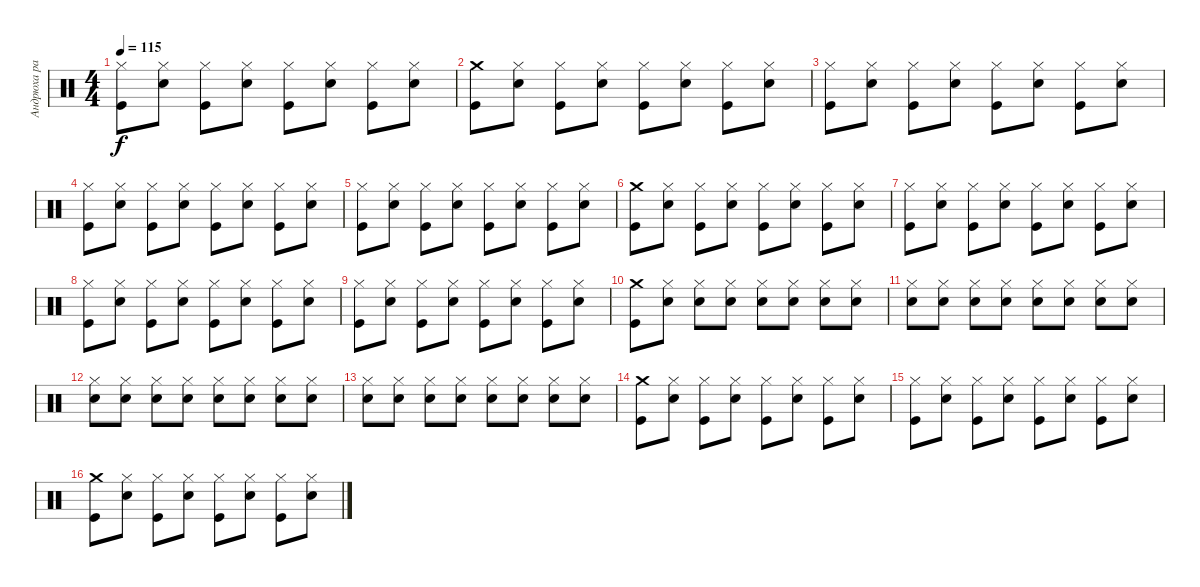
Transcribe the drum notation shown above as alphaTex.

\track ("Андрюха радостный" "Андрюха ра") {instrument percussion}
\staff {score}
\articulation defaults
\ts (4 4)
\tempo 115
\clef neutral
\ks c
("Hi-Hat (closed)" "Kick (hit)").8{dy f} ("Hi-Hat (closed)" "Electric Snare (hit)").8 ("Hi-Hat (closed)" "Kick (hit)").8 ("Hi-Hat (closed)" "Electric Snare (hit)").8 ("Hi-Hat (closed)" "Kick (hit)").8 ("Hi-Hat (closed)" "Electric Snare (hit)").8 ("Hi-Hat (closed)" "Kick (hit)").8 ("Hi-Hat (closed)" "Electric Snare (hit)").8 |
("Crash medium (hit)" "Kick (hit)").8 ("Hi-Hat (closed)" "Electric Snare (hit)").8 ("Hi-Hat (closed)" "Kick (hit)").8 ("Hi-Hat (closed)" "Electric Snare (hit)").8 ("Hi-Hat (closed)" "Kick (hit)").8 ("Hi-Hat (closed)" "Electric Snare (hit)").8 ("Hi-Hat (closed)" "Kick (hit)").8 ("Hi-Hat (closed)" "Electric Snare (hit)").8 |
("Hi-Hat (closed)" "Kick (hit)").8 ("Hi-Hat (closed)" "Electric Snare (hit)").8 ("Hi-Hat (closed)" "Kick (hit)").8 ("Hi-Hat (closed)" "Electric Snare (hit)").8 ("Hi-Hat (closed)" "Kick (hit)").8 ("Hi-Hat (closed)" "Electric Snare (hit)").8 ("Hi-Hat (closed)" "Kick (hit)").8 ("Hi-Hat (closed)" "Electric Snare (hit)").8 |
("Hi-Hat (closed)" "Kick (hit)").8 ("Hi-Hat (closed)" "Electric Snare (hit)").8 ("Hi-Hat (closed)" "Kick (hit)").8 ("Hi-Hat (closed)" "Electric Snare (hit)").8 ("Hi-Hat (closed)" "Kick (hit)").8 ("Hi-Hat (closed)" "Electric Snare (hit)").8 ("Hi-Hat (closed)" "Kick (hit)").8 ("Hi-Hat (closed)" "Electric Snare (hit)").8 |
("Hi-Hat (closed)" "Kick (hit)").8 ("Hi-Hat (closed)" "Electric Snare (hit)").8 ("Hi-Hat (closed)" "Kick (hit)").8 ("Hi-Hat (closed)" "Electric Snare (hit)").8 ("Hi-Hat (closed)" "Kick (hit)").8 ("Hi-Hat (closed)" "Electric Snare (hit)").8 ("Hi-Hat (closed)" "Kick (hit)").8 ("Hi-Hat (closed)" "Electric Snare (hit)").8 |
("Crash medium (hit)" "Kick (hit)").8 ("Hi-Hat (closed)" "Electric Snare (hit)").8 ("Hi-Hat (closed)" "Kick (hit)").8 ("Hi-Hat (closed)" "Electric Snare (hit)").8 ("Hi-Hat (closed)" "Kick (hit)").8 ("Hi-Hat (closed)" "Electric Snare (hit)").8 ("Hi-Hat (closed)" "Kick (hit)").8 ("Hi-Hat (closed)" "Electric Snare (hit)").8 |
("Hi-Hat (closed)" "Kick (hit)").8 ("Hi-Hat (closed)" "Electric Snare (hit)").8 ("Hi-Hat (closed)" "Kick (hit)").8 ("Hi-Hat (closed)" "Electric Snare (hit)").8 ("Hi-Hat (closed)" "Kick (hit)").8 ("Hi-Hat (closed)" "Electric Snare (hit)").8 ("Hi-Hat (closed)" "Kick (hit)").8 ("Hi-Hat (closed)" "Electric Snare (hit)").8 |
("Hi-Hat (closed)" "Kick (hit)").8 ("Hi-Hat (closed)" "Electric Snare (hit)").8 ("Hi-Hat (closed)" "Kick (hit)").8 ("Hi-Hat (closed)" "Electric Snare (hit)").8 ("Hi-Hat (closed)" "Kick (hit)").8 ("Hi-Hat (closed)" "Electric Snare (hit)").8 ("Hi-Hat (closed)" "Kick (hit)").8 ("Hi-Hat (closed)" "Electric Snare (hit)").8 |
("Hi-Hat (closed)" "Kick (hit)").8 ("Hi-Hat (closed)" "Electric Snare (hit)").8 ("Hi-Hat (closed)" "Kick (hit)").8 ("Hi-Hat (closed)" "Electric Snare (hit)").8 ("Hi-Hat (closed)" "Kick (hit)").8 ("Hi-Hat (closed)" "Electric Snare (hit)").8 ("Hi-Hat (closed)" "Kick (hit)").8 ("Hi-Hat (closed)" "Electric Snare (hit)").8 |
("Crash medium (hit)" "Kick (hit)").8 ("Hi-Hat (closed)" "Electric Snare (hit)").8 ("Hi-Hat (closed)" "Electric Snare (hit)").8 ("Hi-Hat (closed)" "Electric Snare (hit)").8 ("Hi-Hat (closed)" "Electric Snare (hit)").8 ("Hi-Hat (closed)" "Electric Snare (hit)").8 ("Hi-Hat (closed)" "Electric Snare (hit)").8 ("Hi-Hat (closed)" "Electric Snare (hit)").8 |
("Hi-Hat (closed)" "Electric Snare (hit)").8 ("Hi-Hat (closed)" "Electric Snare (hit)").8 ("Hi-Hat (closed)" "Electric Snare (hit)").8 ("Hi-Hat (closed)" "Electric Snare (hit)").8 ("Hi-Hat (closed)" "Electric Snare (hit)").8 ("Hi-Hat (closed)" "Electric Snare (hit)").8 ("Hi-Hat (closed)" "Electric Snare (hit)").8 ("Hi-Hat (closed)" "Electric Snare (hit)").8 |
("Hi-Hat (closed)" "Electric Snare (hit)").8 ("Hi-Hat (closed)" "Electric Snare (hit)").8 ("Hi-Hat (closed)" "Electric Snare (hit)").8 ("Hi-Hat (closed)" "Electric Snare (hit)").8 ("Hi-Hat (closed)" "Electric Snare (hit)").8 ("Hi-Hat (closed)" "Electric Snare (hit)").8 ("Hi-Hat (closed)" "Electric Snare (hit)").8 ("Hi-Hat (closed)" "Electric Snare (hit)").8 |
("Hi-Hat (closed)" "Electric Snare (hit)").8 ("Hi-Hat (closed)" "Electric Snare (hit)").8 ("Hi-Hat (closed)" "Electric Snare (hit)").8 ("Hi-Hat (closed)" "Electric Snare (hit)").8 ("Hi-Hat (closed)" "Electric Snare (hit)").8 ("Hi-Hat (closed)" "Electric Snare (hit)").8 ("Hi-Hat (closed)" "Electric Snare (hit)").8 ("Hi-Hat (closed)" "Electric Snare (hit)").8 |
("Crash medium (hit)" "Kick (hit)").8 ("Hi-Hat (closed)" "Electric Snare (hit)").8 ("Hi-Hat (closed)" "Kick (hit)").8 ("Hi-Hat (closed)" "Electric Snare (hit)").8 ("Hi-Hat (closed)" "Kick (hit)").8 ("Hi-Hat (closed)" "Electric Snare (hit)").8 ("Hi-Hat (closed)" "Kick (hit)").8 ("Hi-Hat (closed)" "Electric Snare (hit)").8 |
("Hi-Hat (closed)" "Kick (hit)").8 ("Hi-Hat (closed)" "Electric Snare (hit)").8 ("Hi-Hat (closed)" "Kick (hit)").8 ("Hi-Hat (closed)" "Electric Snare (hit)").8 ("Hi-Hat (closed)" "Kick (hit)").8 ("Hi-Hat (closed)" "Electric Snare (hit)").8 ("Hi-Hat (closed)" "Kick (hit)").8 ("Hi-Hat (closed)" "Electric Snare (hit)").8 |
("Crash medium (hit)" "Kick (hit)").8 ("Hi-Hat (closed)" "Electric Snare (hit)").8 ("Hi-Hat (closed)" "Kick (hit)").8 ("Hi-Hat (closed)" "Electric Snare (hit)").8 ("Hi-Hat (closed)" "Kick (hit)").8 ("Hi-Hat (closed)" "Electric Snare (hit)").8 ("Hi-Hat (closed)" "Kick (hit)").8 ("Hi-Hat (closed)" "Electric Snare (hit)").8
